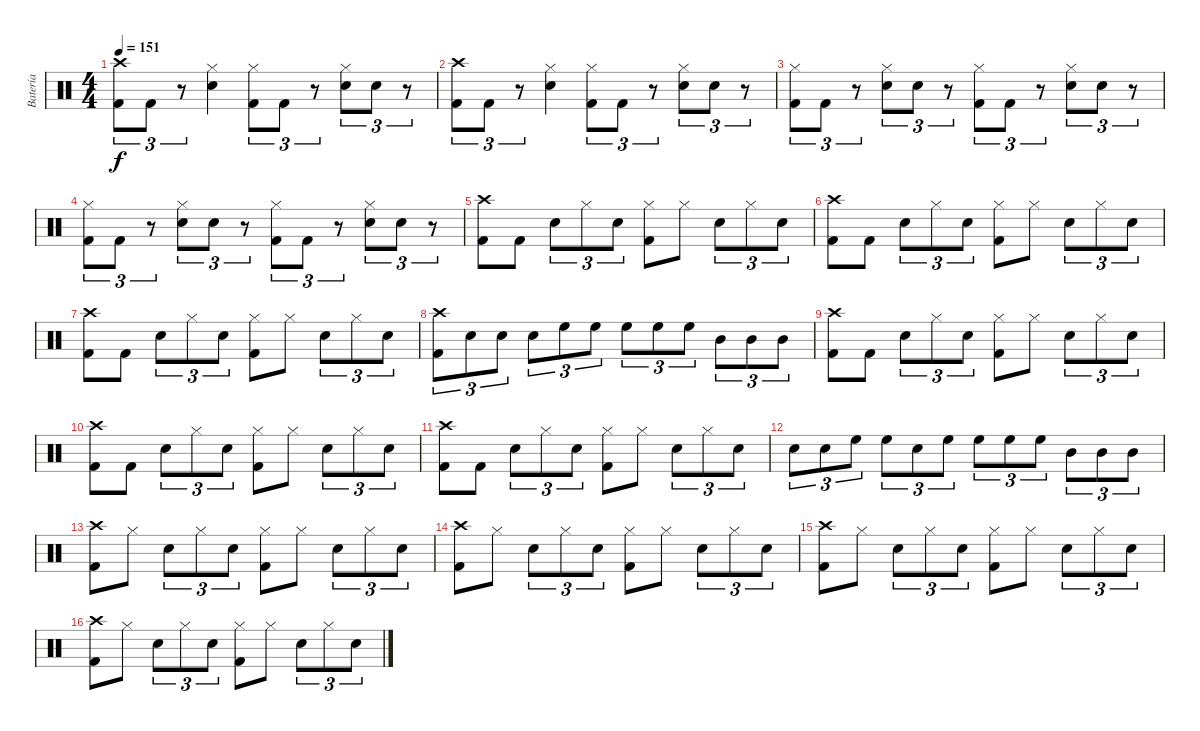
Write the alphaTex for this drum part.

\track ("Batería" "Batería") {instrument percussion}
\staff {score}
\articulation defaults
\ts (4 4)
\tempo 151
\clef neutral
\ks c
("Crash high (hit)" "Kick (hit) 2").8{tu (3 2) dy f} "Kick (hit) 2".8{tu (3 2)} r.8{tu (3 2)} ("Hi-Hat (closed)" "Snare (hit) 2").4 ("Hi-Hat (closed)" "Kick (hit) 2").8{tu (3 2)} "Kick (hit) 2".8{tu (3 2)} r.8{tu (3 2)} ("Hi-Hat (closed)" "Snare (hit) 2").8{tu (3 2)} "Snare (hit) 2".8{tu (3 2)} r.8{tu (3 2)} |
("Crash high (hit)" "Kick (hit) 2").8{tu (3 2)} "Kick (hit) 2".8{tu (3 2)} r.8{tu (3 2)} ("Hi-Hat (closed)" "Snare (hit) 2").4 ("Hi-Hat (closed)" "Kick (hit) 2").8{tu (3 2)} "Kick (hit) 2".8{tu (3 2)} r.8{tu (3 2)} ("Hi-Hat (closed)" "Snare (hit) 2").8{tu (3 2)} "Snare (hit) 2".8{tu (3 2)} r.8{tu (3 2)} |
("Hi-Hat (closed)" "Kick (hit) 2").8{tu (3 2)} "Kick (hit) 2".8{tu (3 2)} r.8{tu (3 2)} ("Hi-Hat (closed)" "Snare (hit) 2").8{tu (3 2)} "Snare (hit) 2".8{tu (3 2)} r.8{tu (3 2)} ("Hi-Hat (closed)" "Kick (hit) 2").8{tu (3 2)} "Kick (hit) 2".8{tu (3 2)} r.8{tu (3 2)} ("Hi-Hat (closed)" "Snare (hit) 2").8{tu (3 2)} "Snare (hit) 2".8{tu (3 2)} r.8{tu (3 2)} |
("Hi-Hat (closed)" "Kick (hit) 2").8{tu (3 2)} "Kick (hit) 2".8{tu (3 2)} r.8{tu (3 2)} ("Hi-Hat (closed)" "Snare (hit) 2").8{tu (3 2)} "Snare (hit) 2".8{tu (3 2)} r.8{tu (3 2)} ("Hi-Hat (closed)" "Kick (hit) 2").8{tu (3 2)} "Kick (hit) 2".8{tu (3 2)} r.8{tu (3 2)} ("Hi-Hat (closed)" "Snare (hit) 2").8{tu (3 2)} "Snare (hit) 2".8{tu (3 2)} r.8{tu (3 2)} |
("Crash high (hit)" "Kick (hit) 2").8 "Kick (hit) 2".8 "Snare (hit) 2".8{tu (3 2)} "Hi-Hat (closed)".8{tu (3 2)} "Snare (hit) 2".8{tu (3 2)} ("Hi-Hat (closed)" "Kick (hit) 2").8 "Hi-Hat (closed)".8 "Snare (hit) 2".8{tu (3 2)} "Hi-Hat (closed)".8{tu (3 2)} "Snare (hit) 2".8{tu (3 2)} |
("Crash high (hit)" "Kick (hit) 2").8 "Kick (hit) 2".8 "Snare (hit) 2".8{tu (3 2)} "Hi-Hat (closed)".8{tu (3 2)} "Snare (hit) 2".8{tu (3 2)} ("Hi-Hat (closed)" "Kick (hit) 2").8 "Hi-Hat (closed)".8 "Snare (hit) 2".8{tu (3 2)} "Hi-Hat (closed)".8{tu (3 2)} "Snare (hit) 2".8{tu (3 2)} |
("Crash high (hit)" "Kick (hit) 2").8 "Kick (hit) 2".8 "Snare (hit) 2".8{tu (3 2)} "Hi-Hat (closed)".8{tu (3 2)} "Snare (hit) 2".8{tu (3 2)} ("Hi-Hat (closed)" "Kick (hit) 2").8 "Hi-Hat (closed)".8 "Snare (hit) 2".8{tu (3 2)} "Hi-Hat (closed)".8{tu (3 2)} "Snare (hit) 2".8{tu (3 2)} |
("Crash high (hit)" "Kick (hit) 2").8{tu (3 2)} "Snare (hit) 2".8{tu (3 2)} "Snare (hit) 2".8{tu (3 2)} "Snare (hit) 2".8{tu (3 2)} "High Floor Tom (hit)".8{tu (3 2)} "High Floor Tom (hit)".8{tu (3 2)} "High Floor Tom (hit)".8{tu (3 2)} "High Floor Tom (hit)".8{tu (3 2)} "High Floor Tom (hit)".8{tu (3 2)} "Mid Tom (hit)".8{tu (3 2)} "Mid Tom (hit)".8{tu (3 2)} "Mid Tom (hit)".8{tu (3 2)} |
("Crash high (hit)" "Kick (hit) 2").8 "Kick (hit) 2".8 "Snare (hit) 2".8{tu (3 2)} "Hi-Hat (closed)".8{tu (3 2)} "Snare (hit) 2".8{tu (3 2)} ("Hi-Hat (closed)" "Kick (hit) 2").8 "Hi-Hat (closed)".8 "Snare (hit) 2".8{tu (3 2)} "Hi-Hat (closed)".8{tu (3 2)} "Snare (hit) 2".8{tu (3 2)} |
("Crash high (hit)" "Kick (hit) 2").8 "Kick (hit) 2".8 "Snare (hit) 2".8{tu (3 2)} "Hi-Hat (closed)".8{tu (3 2)} "Snare (hit) 2".8{tu (3 2)} ("Hi-Hat (closed)" "Kick (hit) 2").8 "Hi-Hat (closed)".8 "Snare (hit) 2".8{tu (3 2)} "Hi-Hat (closed)".8{tu (3 2)} "Snare (hit) 2".8{tu (3 2)} |
("Crash high (hit)" "Kick (hit) 2").8 "Kick (hit) 2".8 "Snare (hit) 2".8{tu (3 2)} "Hi-Hat (closed)".8{tu (3 2)} "Snare (hit) 2".8{tu (3 2)} ("Hi-Hat (closed)" "Kick (hit) 2").8 "Hi-Hat (closed)".8 "Snare (hit) 2".8{tu (3 2)} "Hi-Hat (closed)".8{tu (3 2)} "Snare (hit) 2".8{tu (3 2)} |
"Snare (hit) 2".8{tu (3 2)} "Snare (hit) 2".8{tu (3 2)} "High Floor Tom (hit)".8{tu (3 2)} "High Floor Tom (hit)".8{tu (3 2)} "Snare (hit) 2".8{tu (3 2)} "High Floor Tom (hit)".8{tu (3 2)} "High Floor Tom (hit)".8{tu (3 2)} "High Floor Tom (hit)".8{tu (3 2)} "High Floor Tom (hit)".8{tu (3 2)} "Mid Tom (hit)".8{tu (3 2)} "Mid Tom (hit)".8{tu (3 2)} "Mid Tom (hit)".8{tu (3 2)} |
("Crash high (hit)" "Kick (hit) 2").8 "Hi-Hat (closed)".8 "Snare (hit) 2".8{tu (3 2)} "Hi-Hat (closed)".8{tu (3 2)} "Snare (hit) 2".8{tu (3 2)} ("Hi-Hat (closed)" "Kick (hit) 2").8 "Hi-Hat (closed)".8 "Snare (hit) 2".8{tu (3 2)} "Hi-Hat (closed)".8{tu (3 2)} "Snare (hit) 2".8{tu (3 2)} |
("Crash high (hit)" "Kick (hit) 2").8 "Hi-Hat (closed)".8 "Snare (hit) 2".8{tu (3 2)} "Hi-Hat (closed)".8{tu (3 2)} "Snare (hit) 2".8{tu (3 2)} ("Hi-Hat (closed)" "Kick (hit) 2").8 "Hi-Hat (closed)".8 "Snare (hit) 2".8{tu (3 2)} "Hi-Hat (closed)".8{tu (3 2)} "Snare (hit) 2".8{tu (3 2)} |
("Crash high (hit)" "Kick (hit) 2").8 "Hi-Hat (closed)".8 "Snare (hit) 2".8{tu (3 2)} "Hi-Hat (closed)".8{tu (3 2)} "Snare (hit) 2".8{tu (3 2)} ("Hi-Hat (closed)" "Kick (hit) 2").8 "Hi-Hat (closed)".8 "Snare (hit) 2".8{tu (3 2)} "Hi-Hat (closed)".8{tu (3 2)} "Snare (hit) 2".8{tu (3 2)} |
("Crash high (hit)" "Kick (hit) 2").8 "Hi-Hat (closed)".8 "Snare (hit) 2".8{tu (3 2)} "Hi-Hat (closed)".8{tu (3 2)} "Snare (hit) 2".8{tu (3 2)} ("Hi-Hat (closed)" "Kick (hit) 2").8 "Hi-Hat (closed)".8 "Snare (hit) 2".8{tu (3 2)} "Hi-Hat (closed)".8{tu (3 2)} "Snare (hit) 2".8{tu (3 2)}
